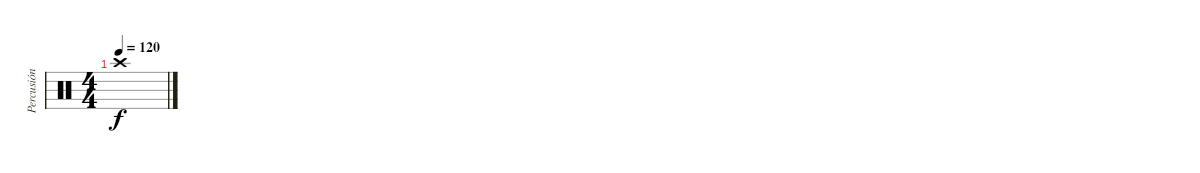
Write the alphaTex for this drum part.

\track ("Percusión" "Percusión") {instrument percussion}
\staff {score}
\articulation defaults
\ts (4 4)
\tempo 120
\clef neutral
\ks c "Crash high (hit)".1{dy f}
